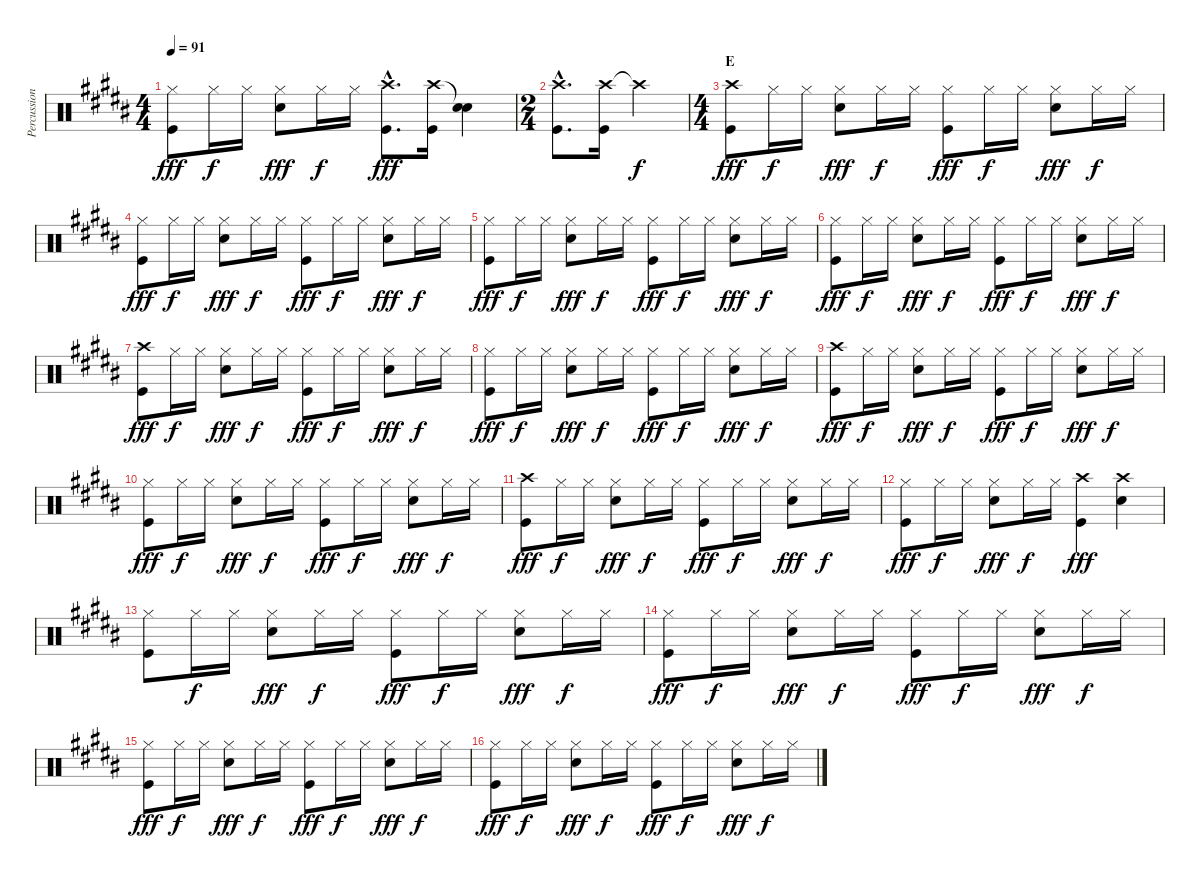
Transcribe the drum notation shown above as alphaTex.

\track ("Percussion" "Percussion") {instrument percussion}
\staff {score}
\articulation defaults
\ts (4 4)
\tempo 91
\clef neutral
\ks b
("Hi-Hat (closed)" "Kick (hit)").8{dy fff} "Hi-Hat (closed)".16{dy f} "Hi-Hat (closed)".16 ("Hi-Hat (closed)" "Electric Snare (hit)").8{dy fff} "Hi-Hat (closed)".16{dy f} "Hi-Hat (closed)".16 ("Crash high (hit)"{hac} "Kick (hit)"{hac}).8{d dy fff} ("Crash high (hit)" "Kick (hit)").16 ("Snare (hit)"{t} "Electric Snare (hit)").4 |
\ts (2 4)
("Crash high (hit)"{hac} "Kick (hit)"{hac}).8{d} ("Crash high (hit)" "Kick (hit)").16 "Crash high (hit)"{t}.4{dy f} |
\ts (4 4)
\section ("" "E")
("Crash high (hit)" "Kick (hit)").8{dy fff} "Hi-Hat (closed)".16{dy f} "Hi-Hat (closed)".16 ("Hi-Hat (closed)" "Electric Snare (hit)").8{dy fff} "Hi-Hat (closed)".16{dy f} "Hi-Hat (closed)".16 ("Hi-Hat (closed)" "Kick (hit)").8{dy fff} "Hi-Hat (closed)".16{dy f} "Hi-Hat (closed)".16 ("Hi-Hat (closed)" "Electric Snare (hit)").8{dy fff} "Hi-Hat (closed)".16{dy f} "Hi-Hat (closed)".16 |
("Hi-Hat (closed)" "Kick (hit)").8{dy fff} "Hi-Hat (closed)".16{dy f} "Hi-Hat (closed)".16 ("Hi-Hat (closed)" "Electric Snare (hit)").8{dy fff} "Hi-Hat (closed)".16{dy f} "Hi-Hat (closed)".16 ("Hi-Hat (closed)" "Kick (hit)").8{dy fff} "Hi-Hat (closed)".16{dy f} "Hi-Hat (closed)".16 ("Hi-Hat (closed)" "Electric Snare (hit)").8{dy fff} "Hi-Hat (closed)".16{dy f} "Hi-Hat (closed)".16 |
("Hi-Hat (closed)" "Kick (hit)").8{dy fff} "Hi-Hat (closed)".16{dy f} "Hi-Hat (closed)".16 ("Hi-Hat (closed)" "Electric Snare (hit)").8{dy fff} "Hi-Hat (closed)".16{dy f} "Hi-Hat (closed)".16 ("Hi-Hat (closed)" "Kick (hit)").8{dy fff} "Hi-Hat (closed)".16{dy f} "Hi-Hat (closed)".16 ("Hi-Hat (closed)" "Electric Snare (hit)").8{dy fff} "Hi-Hat (closed)".16{dy f} "Hi-Hat (closed)".16 |
("Hi-Hat (closed)" "Kick (hit)").8{dy fff} "Hi-Hat (closed)".16{dy f} "Hi-Hat (closed)".16 ("Hi-Hat (closed)" "Electric Snare (hit)").8{dy fff} "Hi-Hat (closed)".16{dy f} "Hi-Hat (closed)".16 ("Hi-Hat (closed)" "Kick (hit)").8{dy fff} "Hi-Hat (closed)".16{dy f} "Hi-Hat (closed)".16 ("Hi-Hat (closed)" "Electric Snare (hit)").8{dy fff} "Hi-Hat (closed)".16{dy f} "Hi-Hat (closed)".16 |
("Crash high (hit)" "Kick (hit)").8{dy fff} "Hi-Hat (closed)".16{dy f} "Hi-Hat (closed)".16 ("Hi-Hat (closed)" "Electric Snare (hit)").8{dy fff} "Hi-Hat (closed)".16{dy f} "Hi-Hat (closed)".16 ("Hi-Hat (closed)" "Kick (hit)").8{dy fff} "Hi-Hat (closed)".16{dy f} "Hi-Hat (closed)".16 ("Hi-Hat (closed)" "Electric Snare (hit)").8{dy fff} "Hi-Hat (closed)".16{dy f} "Hi-Hat (closed)".16 |
("Hi-Hat (closed)" "Kick (hit)").8{dy fff} "Hi-Hat (closed)".16{dy f} "Hi-Hat (closed)".16 ("Hi-Hat (closed)" "Electric Snare (hit)").8{dy fff} "Hi-Hat (closed)".16{dy f} "Hi-Hat (closed)".16 ("Hi-Hat (closed)" "Kick (hit)").8{dy fff} "Hi-Hat (closed)".16{dy f} "Hi-Hat (closed)".16 ("Hi-Hat (closed)" "Electric Snare (hit)").8{dy fff} "Hi-Hat (closed)".16{dy f} "Hi-Hat (closed)".16 |
("Crash high (hit)" "Kick (hit)").8{dy fff} "Hi-Hat (closed)".16{dy f} "Hi-Hat (closed)".16 ("Hi-Hat (closed)" "Electric Snare (hit)").8{dy fff} "Hi-Hat (closed)".16{dy f} "Hi-Hat (closed)".16 ("Hi-Hat (closed)" "Kick (hit)").8{dy fff} "Hi-Hat (closed)".16{dy f} "Hi-Hat (closed)".16 ("Hi-Hat (closed)" "Electric Snare (hit)").8{dy fff} "Hi-Hat (closed)".16{dy f} "Hi-Hat (closed)".16 |
("Hi-Hat (closed)" "Kick (hit)").8{dy fff} "Hi-Hat (closed)".16{dy f} "Hi-Hat (closed)".16 ("Hi-Hat (closed)" "Electric Snare (hit)").8{dy fff} "Hi-Hat (closed)".16{dy f} "Hi-Hat (closed)".16 ("Hi-Hat (closed)" "Kick (hit)").8{dy fff} "Hi-Hat (closed)".16{dy f} "Hi-Hat (closed)".16 ("Hi-Hat (closed)" "Electric Snare (hit)").8{dy fff} "Hi-Hat (closed)".16{dy f} "Hi-Hat (closed)".16 |
("Crash high (hit)" "Kick (hit)").8{dy fff} "Hi-Hat (closed)".16{dy f} "Hi-Hat (closed)".16 ("Hi-Hat (closed)" "Electric Snare (hit)").8{dy fff} "Hi-Hat (closed)".16{dy f} "Hi-Hat (closed)".16 ("Hi-Hat (closed)" "Kick (hit)").8{dy fff} "Hi-Hat (closed)".16{dy f} "Hi-Hat (closed)".16 ("Hi-Hat (closed)" "Electric Snare (hit)").8{dy fff} "Hi-Hat (closed)".16{dy f} "Hi-Hat (closed)".16 |
("Hi-Hat (closed)" "Kick (hit)").8{dy fff} "Hi-Hat (closed)".16{dy f} "Hi-Hat (closed)".16 ("Hi-Hat (closed)" "Electric Snare (hit)").8{dy fff} "Hi-Hat (closed)".16{dy f} "Hi-Hat (closed)".16 ("Crash high (hit)" "Kick (hit)").4{dy fff} ("Crash high (hit)" "Electric Snare (hit)").4 |
("Hi-Hat (closed)" "Kick (hit)").8 "Hi-Hat (closed)".16{dy f} "Hi-Hat (closed)".16 ("Hi-Hat (closed)" "Electric Snare (hit)").8{dy fff} "Hi-Hat (closed)".16{dy f} "Hi-Hat (closed)".16 ("Hi-Hat (closed)" "Kick (hit)").8{dy fff} "Hi-Hat (closed)".16{dy f} "Hi-Hat (closed)".16 ("Hi-Hat (closed)" "Electric Snare (hit)").8{dy fff} "Hi-Hat (closed)".16{dy f} "Hi-Hat (closed)".16 |
("Hi-Hat (closed)" "Kick (hit)").8{dy fff} "Hi-Hat (closed)".16{dy f} "Hi-Hat (closed)".16 ("Hi-Hat (closed)" "Electric Snare (hit)").8{dy fff} "Hi-Hat (closed)".16{dy f} "Hi-Hat (closed)".16 ("Hi-Hat (closed)" "Kick (hit)").8{dy fff} "Hi-Hat (closed)".16{dy f} "Hi-Hat (closed)".16 ("Hi-Hat (closed)" "Electric Snare (hit)").8{dy fff} "Hi-Hat (closed)".16{dy f} "Hi-Hat (closed)".16 |
("Hi-Hat (closed)" "Kick (hit)").8{dy fff} "Hi-Hat (closed)".16{dy f} "Hi-Hat (closed)".16 ("Hi-Hat (closed)" "Electric Snare (hit)").8{dy fff} "Hi-Hat (closed)".16{dy f} "Hi-Hat (closed)".16 ("Hi-Hat (closed)" "Kick (hit)").8{dy fff} "Hi-Hat (closed)".16{dy f} "Hi-Hat (closed)".16 ("Hi-Hat (closed)" "Electric Snare (hit)").8{dy fff} "Hi-Hat (closed)".16{dy f} "Hi-Hat (closed)".16 |
("Hi-Hat (closed)" "Kick (hit)").8{dy fff} "Hi-Hat (closed)".16{dy f} "Hi-Hat (closed)".16 ("Hi-Hat (closed)" "Electric Snare (hit)").8{dy fff} "Hi-Hat (closed)".16{dy f} "Hi-Hat (closed)".16 ("Hi-Hat (closed)" "Kick (hit)").8{dy fff} "Hi-Hat (closed)".16{dy f} "Hi-Hat (closed)".16 ("Hi-Hat (closed)" "Electric Snare (hit)").8{dy fff} "Hi-Hat (closed)".16{dy f} "Hi-Hat (closed)".16
